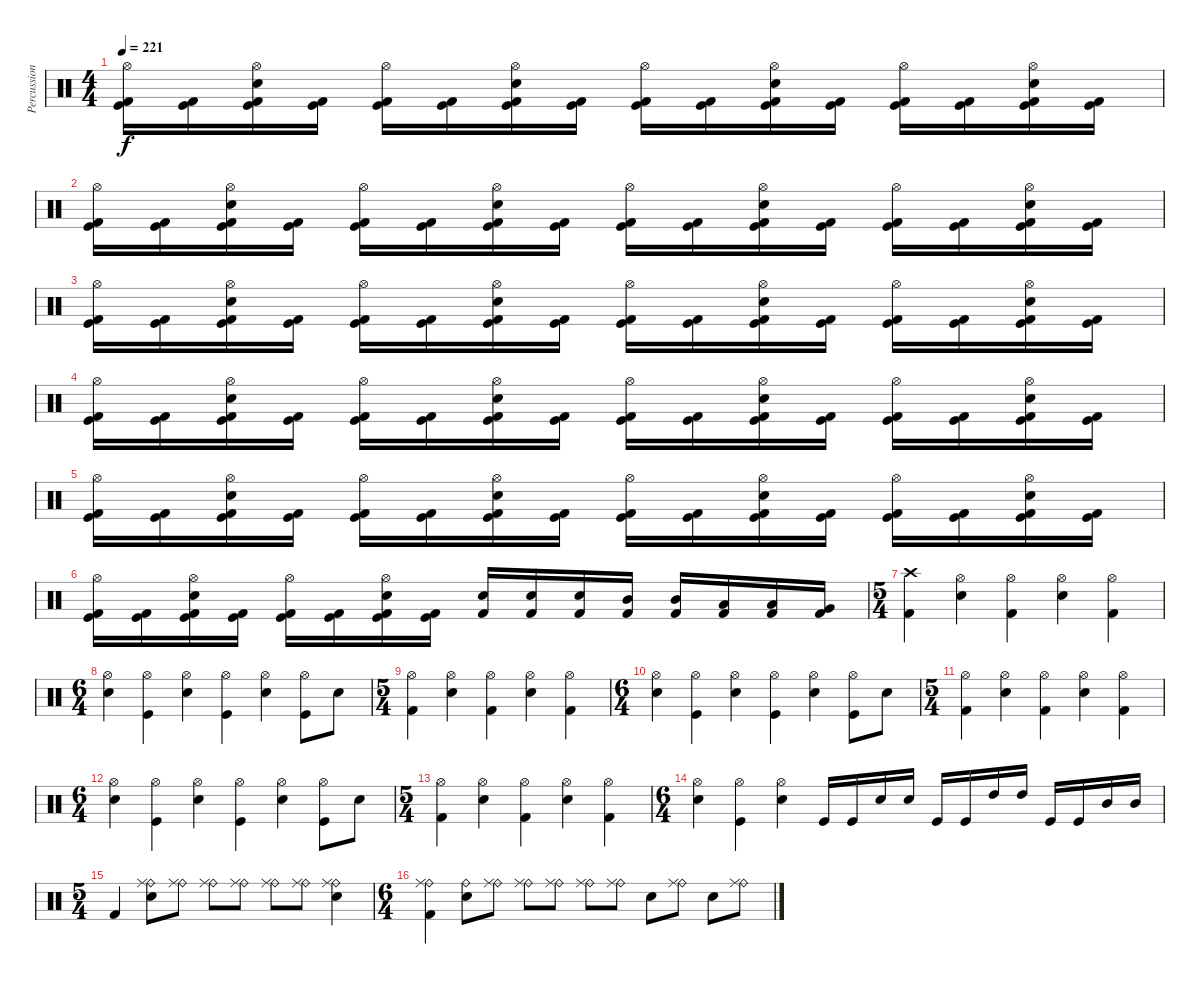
\track ("Percussion" "Percussion") {instrument percussion}
\staff {score}
\articulation defaults
\ts (4 4)
\tempo 221
\clef neutral
\ks c
("Hi-Hat (open)" "Kick (hit)" "Kick (hit) 2").16{dy f} ("Kick (hit)" "Kick (hit) 2").16 ("Hi-Hat (open)" "Electric Snare (hit)" "Kick (hit)" "Kick (hit) 2").16 ("Kick (hit)" "Kick (hit) 2").16 ("Hi-Hat (open)" "Kick (hit)" "Kick (hit) 2").16 ("Kick (hit)" "Kick (hit) 2").16 ("Hi-Hat (open)" "Electric Snare (hit)" "Kick (hit)" "Kick (hit) 2").16 ("Kick (hit)" "Kick (hit) 2").16 ("Hi-Hat (open)" "Kick (hit)" "Kick (hit) 2").16 ("Kick (hit)" "Kick (hit) 2").16 ("Hi-Hat (open)" "Electric Snare (hit)" "Kick (hit)" "Kick (hit) 2").16 ("Kick (hit)" "Kick (hit) 2").16 ("Hi-Hat (open)" "Kick (hit)" "Kick (hit) 2").16 ("Kick (hit)" "Kick (hit) 2").16 ("Hi-Hat (open)" "Electric Snare (hit)" "Kick (hit)" "Kick (hit) 2").16 ("Kick (hit)" "Kick (hit) 2").16 |
("Hi-Hat (open)" "Kick (hit)" "Kick (hit) 2").16 ("Kick (hit)" "Kick (hit) 2").16 ("Hi-Hat (open)" "Electric Snare (hit)" "Kick (hit)" "Kick (hit) 2").16 ("Kick (hit)" "Kick (hit) 2").16 ("Hi-Hat (open)" "Kick (hit)" "Kick (hit) 2").16 ("Kick (hit)" "Kick (hit) 2").16 ("Hi-Hat (open)" "Electric Snare (hit)" "Kick (hit)" "Kick (hit) 2").16 ("Kick (hit)" "Kick (hit) 2").16 ("Hi-Hat (open)" "Kick (hit)" "Kick (hit) 2").16 ("Kick (hit)" "Kick (hit) 2").16 ("Hi-Hat (open)" "Electric Snare (hit)" "Kick (hit)" "Kick (hit) 2").16 ("Kick (hit)" "Kick (hit) 2").16 ("Hi-Hat (open)" "Kick (hit)" "Kick (hit) 2").16 ("Kick (hit)" "Kick (hit) 2").16 ("Hi-Hat (open)" "Electric Snare (hit)" "Kick (hit)" "Kick (hit) 2").16 ("Kick (hit)" "Kick (hit) 2").16 |
("Hi-Hat (open)" "Kick (hit)" "Kick (hit) 2").16 ("Kick (hit)" "Kick (hit) 2").16 ("Hi-Hat (open)" "Electric Snare (hit)" "Kick (hit)" "Kick (hit) 2").16 ("Kick (hit)" "Kick (hit) 2").16 ("Hi-Hat (open)" "Kick (hit)" "Kick (hit) 2").16 ("Kick (hit)" "Kick (hit) 2").16 ("Hi-Hat (open)" "Electric Snare (hit)" "Kick (hit)" "Kick (hit) 2").16 ("Kick (hit)" "Kick (hit) 2").16 ("Hi-Hat (open)" "Kick (hit)" "Kick (hit) 2").16 ("Kick (hit)" "Kick (hit) 2").16 ("Hi-Hat (open)" "Electric Snare (hit)" "Kick (hit)" "Kick (hit) 2").16 ("Kick (hit)" "Kick (hit) 2").16 ("Hi-Hat (open)" "Kick (hit)" "Kick (hit) 2").16 ("Kick (hit)" "Kick (hit) 2").16 ("Hi-Hat (open)" "Electric Snare (hit)" "Kick (hit)" "Kick (hit) 2").16 ("Kick (hit)" "Kick (hit) 2").16 |
("Hi-Hat (open)" "Kick (hit)" "Kick (hit) 2").16 ("Kick (hit)" "Kick (hit) 2").16 ("Hi-Hat (open)" "Electric Snare (hit)" "Kick (hit)" "Kick (hit) 2").16 ("Kick (hit)" "Kick (hit) 2").16 ("Hi-Hat (open)" "Kick (hit)" "Kick (hit) 2").16 ("Kick (hit)" "Kick (hit) 2").16 ("Hi-Hat (open)" "Electric Snare (hit)" "Kick (hit)" "Kick (hit) 2").16 ("Kick (hit)" "Kick (hit) 2").16 ("Hi-Hat (open)" "Kick (hit)" "Kick (hit) 2").16 ("Kick (hit)" "Kick (hit) 2").16 ("Hi-Hat (open)" "Electric Snare (hit)" "Kick (hit)" "Kick (hit) 2").16 ("Kick (hit)" "Kick (hit) 2").16 ("Hi-Hat (open)" "Kick (hit)" "Kick (hit) 2").16 ("Kick (hit)" "Kick (hit) 2").16 ("Hi-Hat (open)" "Electric Snare (hit)" "Kick (hit)" "Kick (hit) 2").16 ("Kick (hit)" "Kick (hit) 2").16 |
("Hi-Hat (open)" "Kick (hit)" "Kick (hit) 2").16 ("Kick (hit)" "Kick (hit) 2").16 ("Hi-Hat (open)" "Electric Snare (hit)" "Kick (hit)" "Kick (hit) 2").16 ("Kick (hit)" "Kick (hit) 2").16 ("Hi-Hat (open)" "Kick (hit)" "Kick (hit) 2").16 ("Kick (hit)" "Kick (hit) 2").16 ("Hi-Hat (open)" "Electric Snare (hit)" "Kick (hit)" "Kick (hit) 2").16 ("Kick (hit)" "Kick (hit) 2").16 ("Hi-Hat (open)" "Kick (hit)" "Kick (hit) 2").16 ("Kick (hit)" "Kick (hit) 2").16 ("Hi-Hat (open)" "Electric Snare (hit)" "Kick (hit)" "Kick (hit) 2").16 ("Kick (hit)" "Kick (hit) 2").16 ("Hi-Hat (open)" "Kick (hit)" "Kick (hit) 2").16 ("Kick (hit)" "Kick (hit) 2").16 ("Hi-Hat (open)" "Electric Snare (hit)" "Kick (hit)" "Kick (hit) 2").16 ("Kick (hit)" "Kick (hit) 2").16 |
("Hi-Hat (open)" "Kick (hit)" "Kick (hit) 2").16 ("Kick (hit)" "Kick (hit) 2").16 ("Hi-Hat (open)" "Electric Snare (hit)" "Kick (hit)" "Kick (hit) 2").16 ("Kick (hit)" "Kick (hit) 2").16 ("Hi-Hat (open)" "Kick (hit)" "Kick (hit) 2").16 ("Kick (hit)" "Kick (hit) 2").16 ("Hi-Hat (open)" "Electric Snare (hit)" "Kick (hit)" "Kick (hit) 2").16 ("Kick (hit)" "Kick (hit) 2").16 ("Electric Snare (hit)" "Kick (hit) 2").16 ("Electric Snare (hit)" "Kick (hit) 2").16 ("Electric Snare (hit)" "Kick (hit) 2").16 ("Mid Tom (hit)" "Kick (hit) 2").16 ("Mid Tom (hit)" "Kick (hit) 2").16 ("Low Tom (hit)" "Kick (hit) 2").16 ("Low Tom (hit)" "Kick (hit) 2").16 ("Very Low Tom (hit)" "Kick (hit) 2").16 |
\ts (5 4)
("Crash high (hit)" "Kick (hit) 2").4 ("Hi-Hat (open)" "Electric Snare (hit)").4 ("Hi-Hat (open)" "Kick (hit) 2").4 ("Hi-Hat (open)" "Electric Snare (hit)").4 ("Hi-Hat (open)" "Kick (hit) 2").4 |
\ts (6 4)
("Hi-Hat (open)" "Electric Snare (hit)").4 ("Hi-Hat (open)" "Kick (hit)").4 ("Hi-Hat (open)" "Electric Snare (hit)").4 ("Hi-Hat (open)" "Kick (hit)").4 ("Hi-Hat (open)" "Electric Snare (hit)").4 ("Hi-Hat (open)" "Kick (hit)").8 "Electric Snare (hit)".8 |
\ts (5 4)
("Hi-Hat (open)" "Kick (hit) 2").4 ("Hi-Hat (open)" "Electric Snare (hit)").4 ("Hi-Hat (open)" "Kick (hit) 2").4 ("Hi-Hat (open)" "Electric Snare (hit)").4 ("Hi-Hat (open)" "Kick (hit) 2").4 |
\ts (6 4)
("Hi-Hat (open)" "Electric Snare (hit)").4 ("Hi-Hat (open)" "Kick (hit)").4 ("Hi-Hat (open)" "Electric Snare (hit)").4 ("Hi-Hat (open)" "Kick (hit)").4 ("Hi-Hat (open)" "Electric Snare (hit)").4 ("Hi-Hat (open)" "Kick (hit)").8 "Electric Snare (hit)".8 |
\ts (5 4)
("Hi-Hat (open)" "Kick (hit) 2").4 ("Hi-Hat (open)" "Electric Snare (hit)").4 ("Hi-Hat (open)" "Kick (hit) 2").4 ("Hi-Hat (open)" "Electric Snare (hit)").4 ("Hi-Hat (open)" "Kick (hit) 2").4 |
\ts (6 4)
("Hi-Hat (open)" "Electric Snare (hit)").4 ("Hi-Hat (open)" "Kick (hit)").4 ("Hi-Hat (open)" "Electric Snare (hit)").4 ("Hi-Hat (open)" "Kick (hit)").4 ("Hi-Hat (open)" "Electric Snare (hit)").4 ("Hi-Hat (open)" "Kick (hit)").8 "Electric Snare (hit)".8 |
\ts (5 4)
("Hi-Hat (open)" "Kick (hit) 2").4 ("Hi-Hat (open)" "Electric Snare (hit)").4 ("Hi-Hat (open)" "Kick (hit) 2").4 ("Hi-Hat (open)" "Electric Snare (hit)").4 ("Hi-Hat (open)" "Kick (hit) 2").4 |
\ts (6 4)
("Hi-Hat (open)" "Electric Snare (hit)").4 ("Hi-Hat (open)" "Kick (hit)").4 ("Hi-Hat (open)" "Electric Snare (hit)").4 "Kick (hit)".16 "Kick (hit)".16 "Snare (hit) 2".16 "Snare (hit) 2".16 "Kick (hit)".16 "Kick (hit)".16 "High Tom (hit)".16 "High Tom (hit)".16 "Kick (hit)".16 "Kick (hit)".16 "Mid Tom (hit)".16 "Mid Tom (hit)".16 |
\ts (5 4)
"Kick (hit) 2".4 ("Ride (bell)" "Ride (middle)" "Electric Snare (hit)").8 ("Ride (bell)" "Ride (middle)").8 ("Ride (bell)" "Ride (middle)").8 ("Ride (bell)" "Ride (middle)").8 ("Ride (bell)" "Ride (middle)").8 ("Ride (bell)" "Ride (middle)").8 ("Ride (bell)" "Ride (middle)" "Electric Snare (hit)").4 |
\ts (6 4)
("Ride (bell)" "Ride (middle)" "Kick (hit) 2").4 ("Ride (bell)" "Electric Snare (hit)").8 ("Ride (bell)" "Ride (middle)").8 ("Ride (bell)" "Ride (middle)").8 ("Ride (bell)" "Ride (middle)").8 ("Ride (bell)" "Ride (middle)").8 ("Ride (bell)" "Ride (middle)").8 "Electric Snare (hit)".8 ("Ride (bell)" "Ride (middle)").8 "Electric Snare (hit)".8 ("Ride (bell)" "Ride (middle)").8
